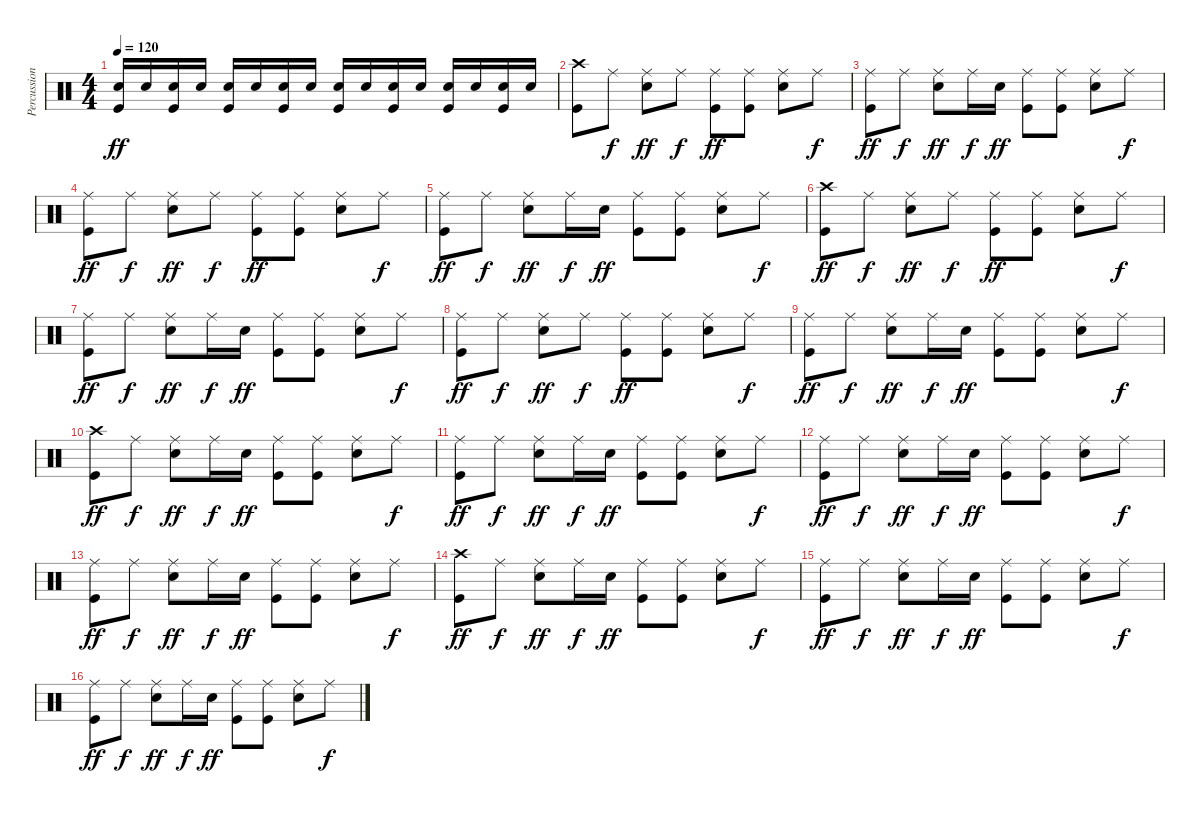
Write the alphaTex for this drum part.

\track ("Percussion" "Percussion") {instrument percussion}
\staff {score}
\articulation defaults
\ts (4 4)
\tempo 120
\clef neutral
\ks c
("Snare (hit) 2" "Kick (hit)").16{dy ff} "Snare (hit) 2".16 ("Snare (hit) 2" "Kick (hit)").16 "Snare (hit) 2".16 ("Snare (hit) 2" "Kick (hit)").16 "Snare (hit) 2".16 ("Snare (hit) 2" "Kick (hit)").16 "Snare (hit) 2".16 ("Snare (hit) 2" "Kick (hit)").16 "Snare (hit) 2".16 ("Snare (hit) 2" "Kick (hit)").16 "Snare (hit) 2".16 ("Snare (hit) 2" "Kick (hit)").16 "Snare (hit) 2".16 ("Snare (hit) 2" "Kick (hit)").16 "Snare (hit) 2".16 |
("Crash high (hit)" "Kick (hit)").8 "Ride (middle)".8{dy f} ("Ride (middle)" "Snare (hit) 2").8{dy ff} "Ride (middle)".8{dy f} ("Ride (middle)" "Kick (hit)").8{dy ff} ("Ride (middle)" "Kick (hit)").8 ("Ride (middle)" "Snare (hit) 2").8 "Ride (middle)".8{dy f} |
("Ride (middle)" "Kick (hit)").8{dy ff} "Ride (middle)".8{dy f} ("Ride (middle)" "Snare (hit) 2").8{dy ff} "Ride (middle)".16{dy f} "Snare (hit) 2".16{dy ff} ("Ride (middle)" "Kick (hit)").8 ("Ride (middle)" "Kick (hit)").8 ("Ride (middle)" "Snare (hit) 2").8 "Ride (middle)".8{dy f} |
("Ride (middle)" "Kick (hit)").8{dy ff} "Ride (middle)".8{dy f} ("Ride (middle)" "Snare (hit) 2").8{dy ff} "Ride (middle)".8{dy f} ("Ride (middle)" "Kick (hit)").8{dy ff} ("Ride (middle)" "Kick (hit)").8 ("Ride (middle)" "Snare (hit) 2").8 "Ride (middle)".8{dy f} |
("Ride (middle)" "Kick (hit)").8{dy ff} "Ride (middle)".8{dy f} ("Ride (middle)" "Snare (hit) 2").8{dy ff} "Ride (middle)".16{dy f} "Snare (hit) 2".16{dy ff} ("Ride (middle)" "Kick (hit)").8 ("Ride (middle)" "Kick (hit)").8 ("Ride (middle)" "Snare (hit) 2").8 "Ride (middle)".8{dy f} |
("Crash high (hit)" "Kick (hit)").8{dy ff} "Ride (middle)".8{dy f} ("Ride (middle)" "Snare (hit) 2").8{dy ff} "Ride (middle)".8{dy f} ("Ride (middle)" "Kick (hit)").8{dy ff} ("Ride (middle)" "Kick (hit)").8 ("Ride (middle)" "Snare (hit) 2").8 "Ride (middle)".8{dy f} |
("Ride (middle)" "Kick (hit)").8{dy ff} "Ride (middle)".8{dy f} ("Ride (middle)" "Snare (hit) 2").8{dy ff} "Ride (middle)".16{dy f} "Snare (hit) 2".16{dy ff} ("Ride (middle)" "Kick (hit)").8 ("Ride (middle)" "Kick (hit)").8 ("Ride (middle)" "Snare (hit) 2").8 "Ride (middle)".8{dy f} |
("Ride (middle)" "Kick (hit)").8{dy ff} "Ride (middle)".8{dy f} ("Ride (middle)" "Snare (hit) 2").8{dy ff} "Ride (middle)".8{dy f} ("Ride (middle)" "Kick (hit)").8{dy ff} ("Ride (middle)" "Kick (hit)").8 ("Ride (middle)" "Snare (hit) 2").8 "Ride (middle)".8{dy f} |
("Ride (middle)" "Kick (hit)").8{dy ff} "Ride (middle)".8{dy f} ("Ride (middle)" "Snare (hit) 2").8{dy ff} "Ride (middle)".16{dy f} "Snare (hit) 2".16{dy ff} ("Ride (middle)" "Kick (hit)").8 ("Ride (middle)" "Kick (hit)").8 ("Ride (middle)" "Snare (hit) 2").8 "Ride (middle)".8{dy f} |
("Crash high (hit)" "Kick (hit)").8{dy ff} "Ride (middle)".8{dy f} ("Ride (middle)" "Snare (hit) 2").8{dy ff} "Ride (middle)".16{dy f} "Snare (hit) 2".16{dy ff} ("Ride (middle)" "Kick (hit)").8 ("Ride (middle)" "Kick (hit)").8 ("Ride (middle)" "Snare (hit) 2").8 "Ride (middle)".8{dy f} |
("Ride (middle)" "Kick (hit)").8{dy ff} "Ride (middle)".8{dy f} ("Ride (middle)" "Snare (hit) 2").8{dy ff} "Ride (middle)".16{dy f} "Snare (hit) 2".16{dy ff} ("Ride (middle)" "Kick (hit)").8 ("Ride (middle)" "Kick (hit)").8 ("Ride (middle)" "Snare (hit) 2").8 "Ride (middle)".8{dy f} |
("Ride (middle)" "Kick (hit)").8{dy ff} "Ride (middle)".8{dy f} ("Ride (middle)" "Snare (hit) 2").8{dy ff} "Ride (middle)".16{dy f} "Snare (hit) 2".16{dy ff} ("Ride (middle)" "Kick (hit)").8 ("Ride (middle)" "Kick (hit)").8 ("Ride (middle)" "Snare (hit) 2").8 "Ride (middle)".8{dy f} |
("Ride (middle)" "Kick (hit)").8{dy ff} "Ride (middle)".8{dy f} ("Ride (middle)" "Snare (hit) 2").8{dy ff} "Ride (middle)".16{dy f} "Snare (hit) 2".16{dy ff} ("Ride (middle)" "Kick (hit)").8 ("Ride (middle)" "Kick (hit)").8 ("Ride (middle)" "Snare (hit) 2").8 "Ride (middle)".8{dy f} |
("Crash high (hit)" "Kick (hit)").8{dy ff} "Ride (middle)".8{dy f} ("Ride (middle)" "Snare (hit) 2").8{dy ff} "Ride (middle)".16{dy f} "Snare (hit) 2".16{dy ff} ("Ride (middle)" "Kick (hit)").8 ("Ride (middle)" "Kick (hit)").8 ("Ride (middle)" "Snare (hit) 2").8 "Ride (middle)".8{dy f} |
("Ride (middle)" "Kick (hit)").8{dy ff} "Ride (middle)".8{dy f} ("Ride (middle)" "Snare (hit) 2").8{dy ff} "Ride (middle)".16{dy f} "Snare (hit) 2".16{dy ff} ("Ride (middle)" "Kick (hit)").8 ("Ride (middle)" "Kick (hit)").8 ("Ride (middle)" "Snare (hit) 2").8 "Ride (middle)".8{dy f} |
("Ride (middle)" "Kick (hit)").8{dy ff} "Ride (middle)".8{dy f} ("Ride (middle)" "Snare (hit) 2").8{dy ff} "Ride (middle)".16{dy f} "Snare (hit) 2".16{dy ff} ("Ride (middle)" "Kick (hit)").8 ("Ride (middle)" "Kick (hit)").8 ("Ride (middle)" "Snare (hit) 2").8 "Ride (middle)".8{dy f}
